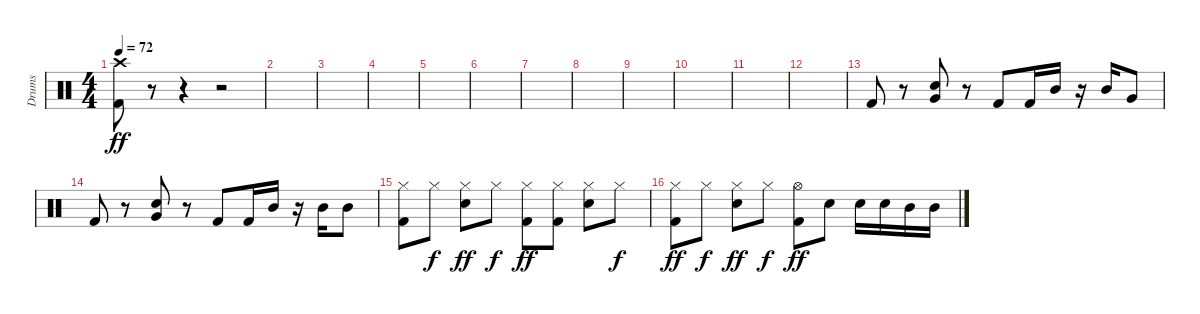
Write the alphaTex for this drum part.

\track ("Drums" "Drums") {instrument percussion}
\staff {score}
\articulation defaults
\ts (4 4)
\tempo 72
\clef neutral
\ks c
("Crash high (hit)" "Kick (hit) 2").8{dy ff} r.8 r.4 r.2 |
|
|
|
|
|
|
|
|
|
|
|
"Kick (hit) 2".8 r.8 ("Snare (hit) 2" "Very Low Tom (hit)").8 r.8 "Kick (hit) 2".8 "Kick (hit) 2".16 "Mid Tom (hit)".16 r.16 "Mid Tom (hit)".16 "Very Low Tom (hit)".8 |
"Kick (hit) 2".8 r.8 ("Snare (hit) 2" "Very Low Tom (hit)").8 r.8 "Kick (hit) 2".8 "Kick (hit) 2".16 "Mid Tom (hit)".16 r.16 "Mid Tom (hit)".16 "Mid Tom (hit)".8 |
("Hi-Hat (closed)" "Kick (hit) 2").8 "Hi-Hat (closed)".8{dy f} ("Hi-Hat (closed)" "Snare (hit) 2").8{dy ff} "Hi-Hat (closed)".8{dy f} ("Hi-Hat (closed)" "Kick (hit) 2").8{dy ff} ("Hi-Hat (closed)" "Kick (hit) 2").8 ("Hi-Hat (closed)" "Snare (hit) 2").8 "Hi-Hat (closed)".8{dy f} |
("Hi-Hat (closed)" "Kick (hit) 2").8{dy ff} "Hi-Hat (closed)".8{dy f} ("Hi-Hat (closed)" "Snare (hit) 2").8{dy ff} "Hi-Hat (closed)".8{dy f} ("Hi-Hat (open)" "Kick (hit) 2").8{dy ff} "Snare (hit) 2".8 "Snare (hit) 2".16 "Snare (hit) 2".16 "Mid Tom (hit)".16 "Mid Tom (hit)".16
